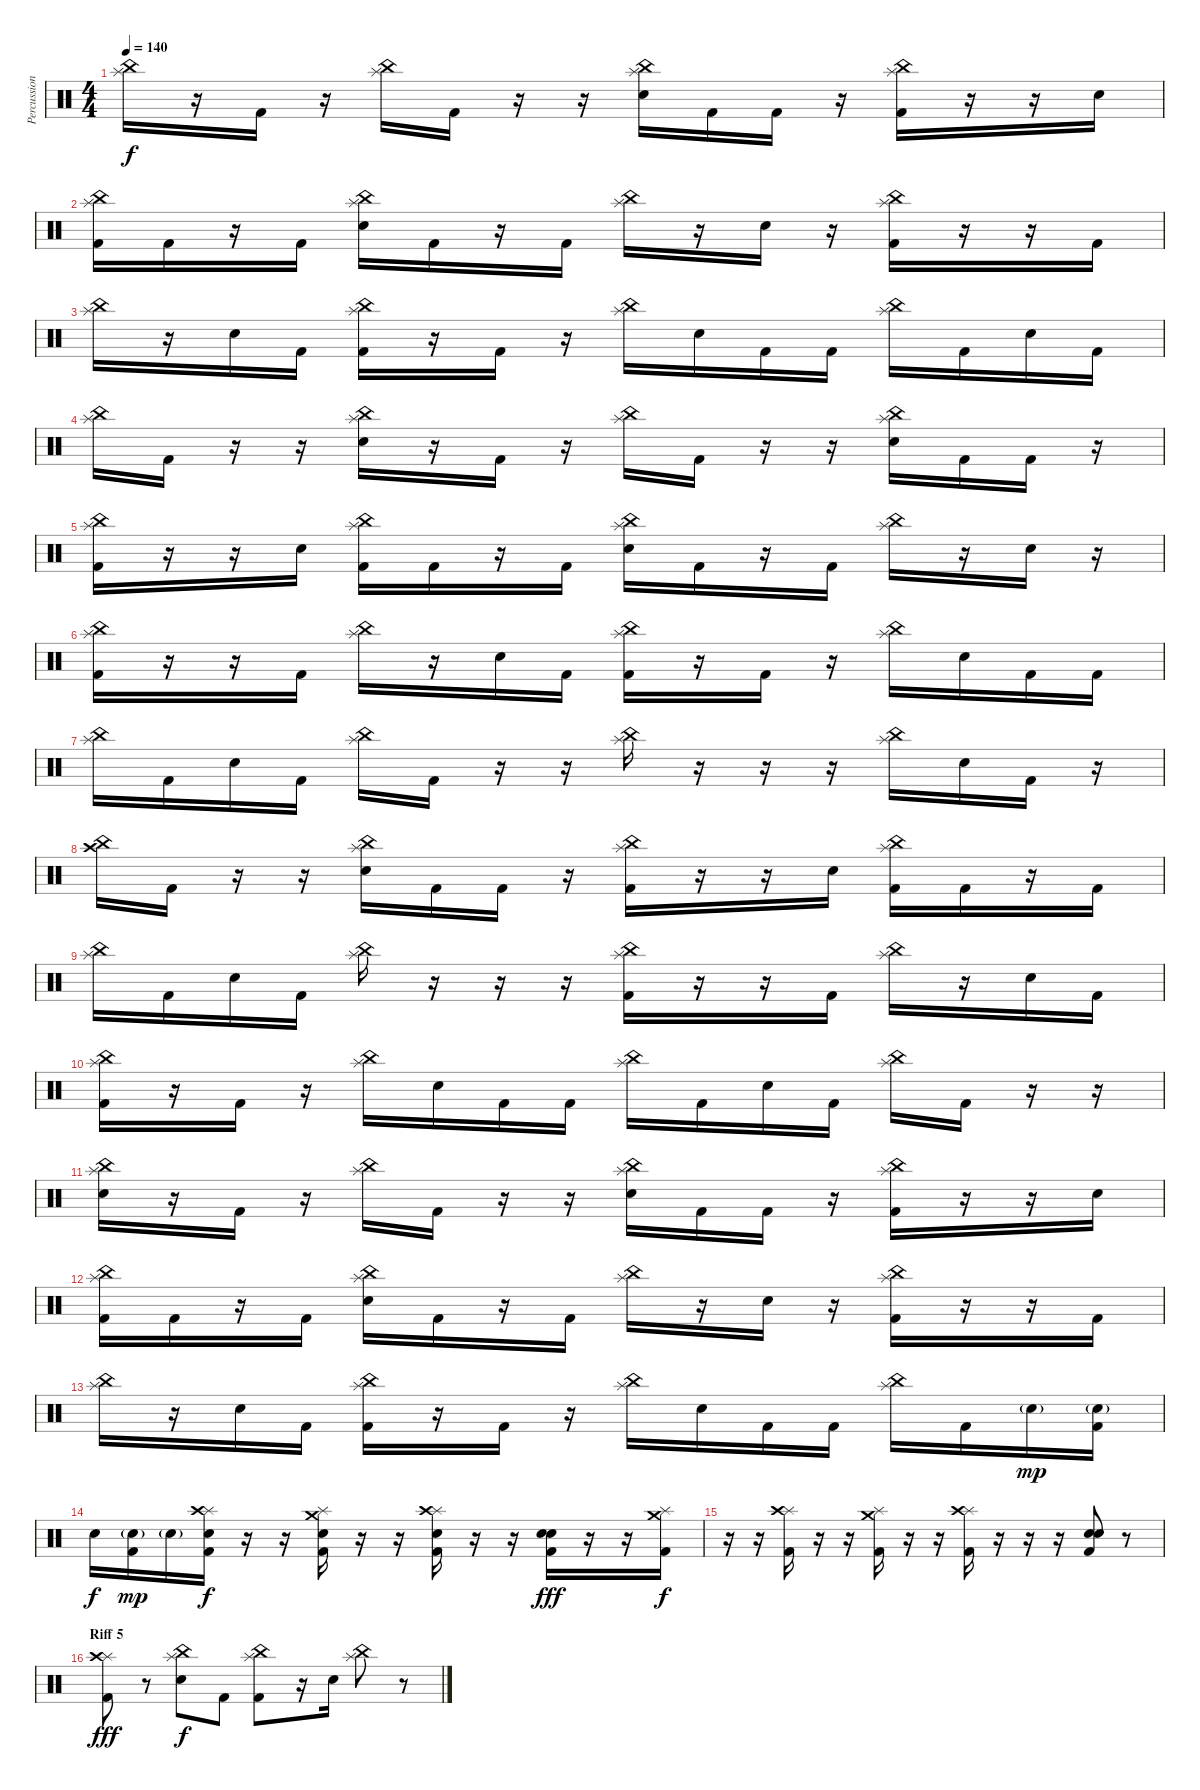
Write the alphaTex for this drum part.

\track ("Percussion" "Percussion") {instrument percussion}
\staff {score}
\articulation defaults
\ts (4 4)
\tempo 140
\clef neutral
\ks c
("Splash (hit)" "China (hit)").16{dy f} r.16 "Kick (hit) 2".16 r.16 ("Splash (hit)" "China (hit)").16 "Kick (hit) 2".16 r.16 r.16 ("Splash (hit)" "China (hit)" "Electric Snare (hit)").16 "Kick (hit) 2".16 "Kick (hit) 2".16 r.16 ("Splash (hit)" "China (hit)" "Kick (hit) 2").16 r.16 r.16 "Electric Snare (hit)".16 |
("Splash (hit)" "China (hit)" "Kick (hit) 2").16 "Kick (hit) 2".16 r.16 "Kick (hit) 2".16 ("Splash (hit)" "China (hit)" "Electric Snare (hit)").16 "Kick (hit) 2".16 r.16 "Kick (hit) 2".16 ("Splash (hit)" "China (hit)").16 r.16 "Electric Snare (hit)".16 r.16 ("Splash (hit)" "China (hit)" "Kick (hit) 2").16 r.16 r.16 "Kick (hit) 2".16 |
("Splash (hit)" "China (hit)").16 r.16 "Electric Snare (hit)".16 "Kick (hit) 2".16 ("Splash (hit)" "China (hit)" "Kick (hit) 2").16 r.16 "Kick (hit) 2".16 r.16 ("Splash (hit)" "China (hit)").16 "Electric Snare (hit)".16 "Kick (hit) 2".16 "Kick (hit) 2".16 ("Splash (hit)" "China (hit)").16 "Kick (hit) 2".16 "Electric Snare (hit)".16 "Kick (hit) 2".16 |
("Splash (hit)" "China (hit)").16 "Kick (hit) 2".16 r.16 r.16 ("Splash (hit)" "China (hit)" "Electric Snare (hit)").16 r.16 "Kick (hit) 2".16 r.16 ("Splash (hit)" "China (hit)").16 "Kick (hit) 2".16 r.16 r.16 ("Splash (hit)" "China (hit)" "Electric Snare (hit)").16 "Kick (hit) 2".16 "Kick (hit) 2".16 r.16 |
("Splash (hit)" "China (hit)" "Kick (hit) 2").16 r.16 r.16 "Electric Snare (hit)".16 ("Splash (hit)" "China (hit)" "Kick (hit) 2").16 "Kick (hit) 2".16 r.16 "Kick (hit) 2".16 ("Splash (hit)" "China (hit)" "Electric Snare (hit)").16 "Kick (hit) 2".16 r.16 "Kick (hit) 2".16 ("Splash (hit)" "China (hit)").16 r.16 "Electric Snare (hit)".16 r.16 |
("Splash (hit)" "China (hit)" "Kick (hit) 2").16 r.16 r.16 "Kick (hit) 2".16 ("Splash (hit)" "China (hit)").16 r.16 "Electric Snare (hit)".16 "Kick (hit) 2".16 ("Splash (hit)" "China (hit)" "Kick (hit) 2").16 r.16 "Kick (hit) 2".16 r.16 ("Splash (hit)" "China (hit)").16 "Electric Snare (hit)".16 "Kick (hit) 2".16 "Kick (hit) 2".16 |
("Splash (hit)" "China (hit)").16 "Kick (hit) 2".16 "Electric Snare (hit)".16 "Kick (hit) 2".16 ("Splash (hit)" "China (hit)").16 "Kick (hit) 2".16 r.16 r.16 ("Splash (hit)" "China (hit)").16 r.16 r.16 r.16 ("Splash (hit)" "China (hit)").16 "Electric Snare (hit)".16 "Kick (hit) 2".16 r.16 |
("China (hit)" "Crash high (hit)").16 "Kick (hit) 2".16 r.16 r.16 ("Splash (hit)" "China (hit)" "Electric Snare (hit)").16 "Kick (hit) 2".16 "Kick (hit) 2".16 r.16 ("Splash (hit)" "China (hit)" "Kick (hit) 2").16 r.16 r.16 "Electric Snare (hit)".16 ("Splash (hit)" "China (hit)" "Kick (hit) 2").16 "Kick (hit) 2".16 r.16 "Kick (hit) 2".16 |
("Splash (hit)" "China (hit)").16 "Kick (hit) 2".16 "Electric Snare (hit)".16 "Kick (hit) 2".16 ("Splash (hit)" "China (hit)").16 r.16 r.16 r.16 ("Splash (hit)" "China (hit)" "Kick (hit) 2").16 r.16 r.16 "Kick (hit) 2".16 ("Splash (hit)" "China (hit)").16 r.16 "Electric Snare (hit)".16 "Kick (hit) 2".16 |
("Splash (hit)" "China (hit)" "Kick (hit) 2").16 r.16 "Kick (hit) 2".16 r.16 ("Splash (hit)" "China (hit)").16 "Electric Snare (hit)".16 "Kick (hit) 2".16 "Kick (hit) 2".16 ("Splash (hit)" "China (hit)").16 "Kick (hit) 2".16 "Electric Snare (hit)".16 "Kick (hit) 2".16 ("Splash (hit)" "China (hit)").16 "Kick (hit) 2".16 r.16 r.16 |
("Splash (hit)" "China (hit)" "Electric Snare (hit)").16 r.16 "Kick (hit) 2".16 r.16 ("Splash (hit)" "China (hit)").16 "Kick (hit) 2".16 r.16 r.16 ("Splash (hit)" "China (hit)" "Electric Snare (hit)").16 "Kick (hit) 2".16 "Kick (hit) 2".16 r.16 ("Splash (hit)" "China (hit)" "Kick (hit) 2").16 r.16 r.16 "Electric Snare (hit)".16 |
("Splash (hit)" "China (hit)" "Kick (hit) 2").16 "Kick (hit) 2".16 r.16 "Kick (hit) 2".16 ("Splash (hit)" "China (hit)" "Electric Snare (hit)").16 "Kick (hit) 2".16 r.16 "Kick (hit) 2".16 ("Splash (hit)" "China (hit)").16 r.16 "Electric Snare (hit)".16 r.16 ("Splash (hit)" "China (hit)" "Kick (hit) 2").16 r.16 r.16 "Kick (hit) 2".16 |
("Splash (hit)" "China (hit)").16 r.16 "Electric Snare (hit)".16 "Kick (hit) 2".16 ("Splash (hit)" "China (hit)" "Kick (hit) 2").16 r.16 "Kick (hit) 2".16 r.16 ("Splash (hit)" "China (hit)").16 "Electric Snare (hit)".16 "Kick (hit) 2".16 "Kick (hit) 2".16 ("Splash (hit)" "China (hit)").16 "Kick (hit) 2".16 "Electric Snare (hit)"{g}.16{dy mp} ("Electric Snare (hit)"{g} "Kick (hit) 2").16 |
"Electric Snare (hit)".16{dy f} ("Electric Snare (hit)"{g} "Kick (hit) 2").16{dy mp} "Electric Snare (hit)"{g}.16 ("Splash (hit)" "Crash high (hit)" "Electric Snare (hit)" "Kick (hit) 2").16{dy f} r.16 r.16 ("Splash (hit)" "Crash medium (hit)" "Electric Snare (hit)" "Kick (hit) 2").16 r.16 r.16 ("Splash (hit)" "Crash high (hit)" "Electric Snare (hit)" "Kick (hit) 2").16 r.16 r.16 ("Electric Snare (hit)" "Electric Snare (hit)" "Kick (hit) 2").16{dy fff} r.16 r.16 ("Splash (hit)" "Crash medium (hit)" "Kick (hit) 2").16{dy f} |
r.16 r.16 ("Splash (hit)" "Crash high (hit)" "Kick (hit) 2").16 r.16 r.16 ("Splash (hit)" "Crash medium (hit)" "Kick (hit) 2").16 r.16 r.16 ("Splash (hit)" "Crash high (hit)" "Kick (hit) 2").16 r.16 r.16 r.16 ("Electric Snare (hit)" "Electric Snare (hit)" "Kick (hit) 2").8 r.8 |
\section ("" "Riff 5")
("Splash (hit)" "Crash high (hit)" "Kick (hit) 2").8{dy fff} r.8 ("Splash (hit)" "China (hit)" "Electric Snare (hit)").8{dy f} "Kick (hit) 2".8 ("Splash (hit)" "China (hit)" "Kick (hit) 2").8 r.16 "Electric Snare (hit)".16 ("Splash (hit)" "China (hit)").8 r.8
